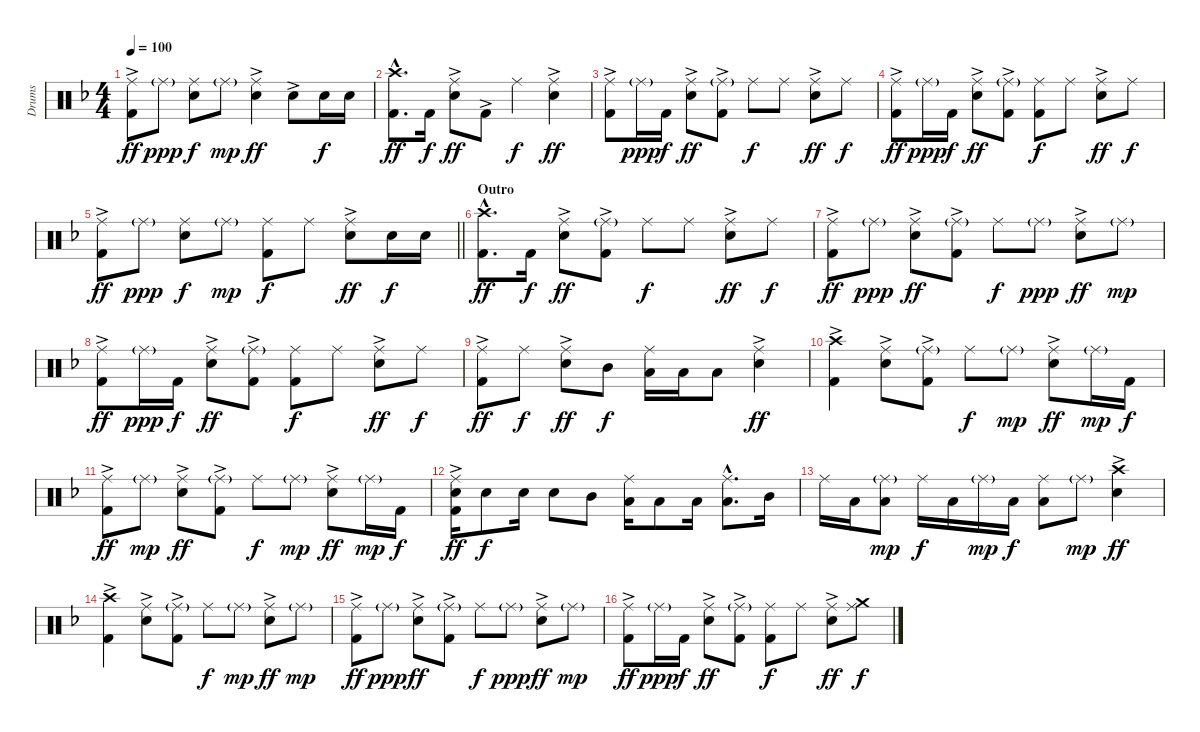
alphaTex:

\track ("Drums" "Drums") {instrument percussion}
\staff {score}
\articulation defaults
\ts (4 4)
\tempo 100
\clef neutral
\ks f
("Ride (middle)" "Kick (hit) 2"{ac}).8{dy ff} "Ride (middle)"{g}.8{dy ppp} ("Ride (middle)" "Snare (hit) 2").8{dy f} "Ride (middle)"{g}.8{dy mp} ("Ride (middle)" "Snare (hit) 2"{ac}).4{dy ff} "Snare (hit) 2"{ac}.8 "Snare (hit) 2".16{dy f} "Snare (hit) 2".16 |
("Crash high (hit)"{hac} "Kick (hit) 2"{hac}).8{d dy ff} "Kick (hit) 2".16{dy f} ("Ride (middle)" "Snare (hit) 2"{ac}).8{dy ff} "Kick (hit) 2"{ac}.8 "Ride (middle)".4{dy f} ("Ride (middle)" "Snare (hit) 2"{ac}).4{dy ff} |
("Ride (middle)" "Kick (hit) 2"{ac}).8 "Ride (middle)"{g}.16{dy ppp} "Kick (hit) 2".16{dy f} ("Ride (middle)" "Snare (hit) 2"{ac}).8{dy ff} ("Ride (middle)"{g} "Kick (hit) 2"{ac}).8 "Ride (middle)".8{dy f} "Ride (middle)".8 ("Ride (middle)" "Snare (hit) 2"{ac}).8{dy ff} "Ride (middle)".8{dy f} |
("Ride (middle)" "Kick (hit) 2"{ac}).8{dy ff} "Ride (middle)"{g}.16{dy ppp} "Kick (hit) 2".16{dy f} ("Ride (middle)" "Snare (hit) 2"{ac}).8{dy ff} ("Ride (middle)"{g} "Kick (hit) 2"{ac}).8 ("Ride (middle)" "Kick (hit) 2").8{dy f} "Ride (middle)".8 ("Ride (middle)" "Snare (hit) 2"{ac}).8{dy ff} "Ride (middle)".8{dy f} |
\barLineRight lightlight
("Ride (middle)" "Kick (hit) 2"{ac}).8{dy ff} "Ride (middle)"{g}.8{dy ppp} ("Ride (middle)" "Snare (hit) 2").8{dy f} "Ride (middle)"{g}.8{dy mp} ("Ride (middle)" "Kick (hit) 2").8{dy f} "Ride (middle)".8 ("Ride (middle)" "Snare (hit) 2"{ac}).8{dy ff} "Snare (hit) 2".16{dy f} "Snare (hit) 2".16 |
\section ("" "Outro")
("Crash high (hit)"{hac} "Kick (hit) 2"{hac}).8{d dy ff} "Kick (hit) 2".16{dy f} ("Ride (middle)" "Snare (hit) 2"{ac}).8{dy ff} ("Ride (middle)"{g} "Kick (hit) 2"{ac}).8 "Ride (middle)".8{dy f} "Ride (middle)".8 ("Ride (middle)" "Snare (hit) 2"{ac}).8{dy ff} "Ride (middle)".8{dy f} |
("Ride (middle)" "Kick (hit) 2"{ac}).8{dy ff} "Ride (middle)"{g}.8{dy ppp} ("Ride (middle)" "Snare (hit) 2"{ac}).8{dy ff} ("Ride (middle)"{g} "Kick (hit) 2"{ac}).8 "Ride (middle)".8{dy f} "Ride (middle)"{g}.8{dy ppp} ("Ride (middle)" "Snare (hit) 2"{ac}).8{dy ff} "Ride (middle)"{g}.8{dy mp} |
("Ride (middle)" "Kick (hit) 2"{ac}).8{dy ff} "Ride (middle)"{g}.16{dy ppp} "Kick (hit) 2".16{dy f} ("Ride (middle)" "Snare (hit) 2"{ac}).8{dy ff} ("Ride (middle)"{g} "Kick (hit) 2"{ac}).8 ("Ride (middle)" "Kick (hit) 2").8{dy f} "Ride (middle)".8 ("Ride (middle)" "Snare (hit) 2"{ac}).8{dy ff} "Ride (middle)".8{dy f} |
("Ride (middle)" "Kick (hit) 2"{ac}).8{dy ff} "Ride (middle)".8{dy f} ("Ride (middle)" "Snare (hit) 2"{ac}).8{dy ff} "Mid Tom (hit)".8{dy f} ("Ride (middle)" "Low Tom (hit)").16 "Low Tom (hit)".16 "Low Tom (hit)".8 ("Ride (middle)" "Snare (hit) 2"{ac}).4{dy ff} |
("Crash high (hit)" "Kick (hit) 2"{ac}).4 ("Ride (middle)" "Snare (hit) 2"{ac}).8 ("Ride (middle)"{g} "Kick (hit) 2"{ac}).8 "Ride (middle)".8{dy f} "Ride (middle)"{g}.8{dy mp} ("Ride (middle)" "Snare (hit) 2"{ac}).8{dy ff} "Ride (middle)"{g}.16{dy mp} "Kick (hit) 2".16{dy f} |
("Ride (middle)" "Kick (hit) 2"{ac}).8{dy ff} "Ride (middle)"{g}.8{dy mp} ("Ride (middle)" "Snare (hit) 2"{ac}).8{dy ff} ("Ride (middle)"{g} "Kick (hit) 2"{ac}).8 "Ride (middle)".8{dy f} "Ride (middle)"{g}.8{dy mp} ("Ride (middle)" "Snare (hit) 2"{ac}).8{dy ff} "Ride (middle)"{g}.16{dy mp} "Kick (hit) 2".16{dy f} |
("Ride (middle)" "Snare (hit) 2" "Kick (hit) 2"{ac}).16{dy ff} "Snare (hit) 2".8{dy f} "Snare (hit) 2".16 "Snare (hit) 2".8 "Mid Tom (hit)".8 ("Ride (middle)" "Low Tom (hit)").16 "Low Tom (hit)".8 "Low Floor Tom (hit)".16 ("Ride (middle)"{hac} "Low Tom (hit)"{hac}).8{d} "Mid Tom (hit)".16 |
"Ride (middle)".16 "Low Tom (hit)".16 ("Ride (middle)"{g} "Low Tom (hit)").8{dy mp} "Ride (middle)".16{dy f} "Low Tom (hit)".16 "Ride (middle)"{g}.16{dy mp} "Low Floor Tom (hit)".16{dy f} ("Ride (middle)" "Low Floor Tom (hit)").8 "Ride (middle)"{g}.8{dy mp} ("Crash high (hit)" "Snare (hit) 2"{ac}).4{dy ff} |
("Crash high (hit)" "Kick (hit) 2"{ac}).4 ("Ride (middle)" "Snare (hit) 2"{ac}).8 ("Ride (middle)"{g} "Kick (hit) 2"{ac}).8 "Ride (middle)".8{dy f} "Ride (middle)"{g}.8{dy mp} ("Ride (middle)" "Snare (hit) 2"{ac}).8{dy ff} "Ride (middle)"{g}.8{dy mp} |
("Ride (middle)" "Kick (hit) 2"{ac}).8{dy ff} "Ride (middle)"{g}.8{dy ppp} ("Ride (middle)" "Snare (hit) 2"{ac}).8{dy ff} ("Ride (middle)"{g} "Kick (hit) 2"{ac}).8 "Ride (middle)".8{dy f} "Ride (middle)"{g}.8{dy ppp} ("Ride (middle)" "Snare (hit) 2"{ac}).8{dy ff} "Ride (middle)"{g}.8{dy mp} |
("Ride (middle)" "Kick (hit) 2"{ac}).8{dy ff} "Ride (middle)"{g}.16{dy ppp} "Kick (hit) 2".16{dy f} ("Ride (middle)" "Snare (hit) 2"{ac}).8{dy ff} ("Ride (middle)"{g} "Kick (hit) 2"{ac}).8 ("Ride (middle)" "Kick (hit) 2").8{dy f} "Ride (middle)".8 ("Ride (middle)" "Snare (hit) 2"{ac}).8{dy ff} ("Ride (middle)" "Crash medium (hit)").8{dy f}
